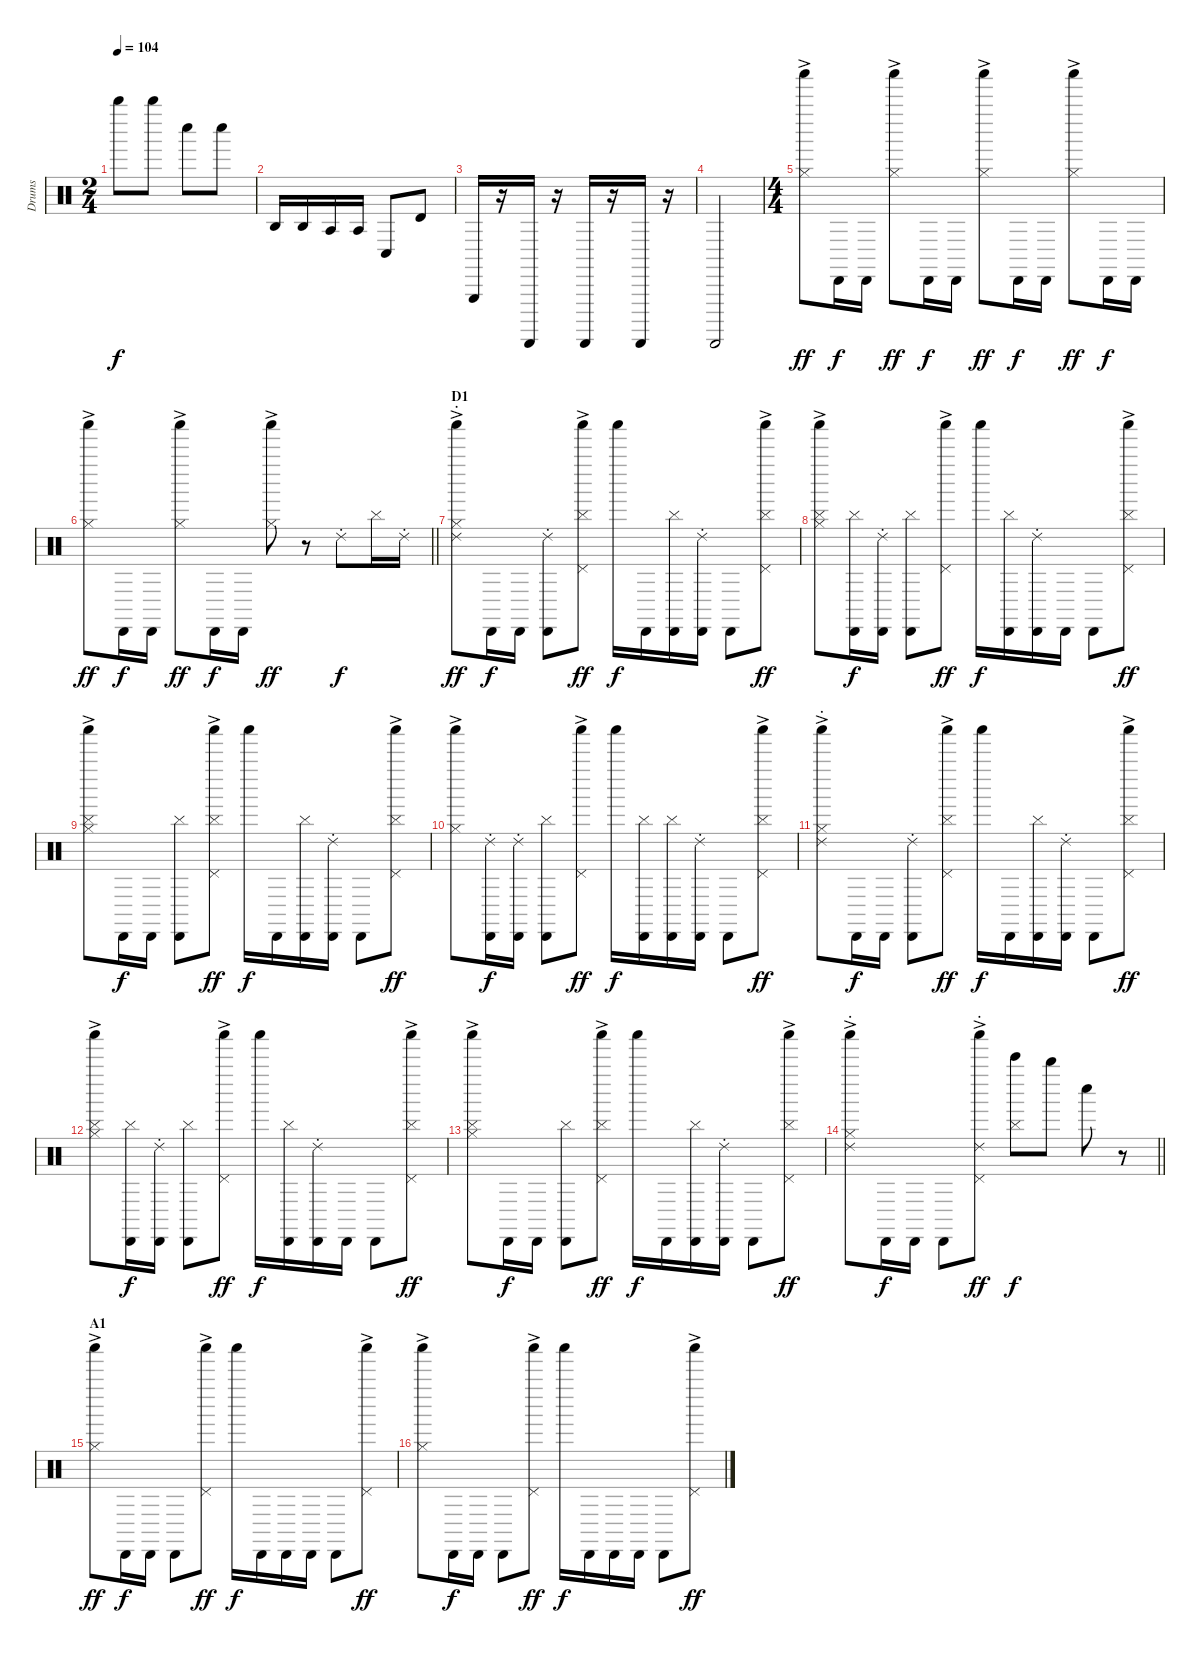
\track ("Drums" "Drums") {instrument percussion}
\staff {score}
\articulation defaults
\ts (2 4)
\tempo 104
\clef neutral
\ks c "Whistle high (hit)".8{dy f} "Whistle high (hit)".8 "Whistle low (hit)".8 "Whistle low (hit)".8
|
"Agogo high (hit)".16 "Agogo high (hit)".16 "Agogo tow (hit)".16 "Agogo tow (hit)".16 "Conga low (hit)".8 "Timbale high (hit)".8 |
"Triangle (hit)".16 r.16 "Guiro (scrap-return)".16 r.16 "Guiro (scrap-return)".16 r.16 "Guiro (scrap-return)".16 r.16 |
"Guiro (scrap-return)".2 |
\ts (4 4)
("Shaker (hit)" "Hi-Hat (closed)"{ac}).8{dy ff} "Cabasa (hit)".16{dy f} "Cabasa (hit)".16 ("Shaker (hit)" "Hi-Hat (closed)"{ac}).8{dy ff} "Cabasa (hit)".16{dy f} "Cabasa (hit)".16 ("Shaker (hit)" "Hi-Hat (closed)"{ac}).8{dy ff} "Cabasa (hit)".16{dy f} "Cabasa (hit)".16 ("Shaker (hit)" "Hi-Hat (closed)"{ac}).8{dy ff} "Cabasa (hit)".16{dy f} "Cabasa (hit)".16 |
\barLineRight lightlight
("Shaker (hit)" "Hi-Hat (closed)"{ac}).8{dy ff} "Cabasa (hit)".16{dy f} "Cabasa (hit)".16 ("Shaker (hit)" "Hi-Hat (closed)"{ac}).8{dy ff} "Cabasa (hit)".16{dy f} "Cabasa (hit)".16 ("Shaker (hit)" "Hi-Hat (closed)"{ac}).8{dy ff} r.8 "Ride (choke) 2".8{dy f} "Cymbal (hit)".16 "Ride (choke) 2".16 |
\section ("" "D1")
("Shaker (hit)" "Hi-Hat (closed)"{ac} "Ride (choke) 2").8{dy ff} "Cabasa (hit)".16{dy f} "Cabasa (hit)".16 ("Cabasa (hit)" "Ride (choke) 2").8 ("Shaker (hit)" "Pedal Hi-Hat (hit)"{ac} "Cymbal (hit)").8{dy ff} "Shaker (hit)".16{dy f} "Cabasa (hit)".16 ("Cabasa (hit)" "Cymbal (hit)").16 ("Cabasa (hit)" "Ride (choke) 2").16 "Cabasa (hit)".8 ("Shaker (hit)" "Pedal Hi-Hat (hit)"{ac} "Cymbal (hit)").8{dy ff} |
("Shaker (hit)" "Hi-Hat (closed)"{ac} "Cymbal (hit)").8 ("Cabasa (hit)" "Cymbal (hit)").16{dy f} ("Cabasa (hit)" "Ride (choke) 2").16 ("Cabasa (hit)" "Cymbal (hit)").8 ("Shaker (hit)" "Pedal Hi-Hat (hit)"{ac}).8{dy ff} "Shaker (hit)".16{dy f} ("Cabasa (hit)" "Cymbal (hit)").16 ("Cabasa (hit)" "Ride (choke) 2").16 "Cabasa (hit)".16 "Cabasa (hit)".8 ("Shaker (hit)" "Pedal Hi-Hat (hit)"{ac} "Cymbal (hit)").8{dy ff} |
("Shaker (hit)" "Hi-Hat (closed)"{ac} "Cymbal (hit)").8 "Cabasa (hit)".16{dy f} "Cabasa (hit)".16 ("Cabasa (hit)" "Cymbal (hit)").8 ("Shaker (hit)" "Pedal Hi-Hat (hit)"{ac} "Cymbal (hit)").8{dy ff} "Shaker (hit)".16{dy f} "Cabasa (hit)".16 ("Cabasa (hit)" "Cymbal (hit)").16 ("Cabasa (hit)" "Ride (choke) 2").16 "Cabasa (hit)".8 ("Shaker (hit)" "Pedal Hi-Hat (hit)"{ac} "Cymbal (hit)").8{dy ff} |
("Shaker (hit)" "Hi-Hat (closed)"{ac}).8 ("Cabasa (hit)" "Ride (choke) 2").16{dy f} ("Cabasa (hit)" "Ride (choke) 2").16 ("Cabasa (hit)" "Cymbal (hit)").8 ("Shaker (hit)" "Pedal Hi-Hat (hit)"{ac}).8{dy ff} "Shaker (hit)".16{dy f} ("Cabasa (hit)" "Cymbal (hit)").16 ("Cabasa (hit)" "Cymbal (hit)").16 ("Cabasa (hit)" "Ride (choke) 2").16 "Cabasa (hit)".8 ("Shaker (hit)" "Pedal Hi-Hat (hit)"{ac} "Cymbal (hit)").8{dy ff} |
("Shaker (hit)" "Hi-Hat (closed)"{ac} "Ride (choke) 2").8 "Cabasa (hit)".16{dy f} "Cabasa (hit)".16 ("Cabasa (hit)" "Ride (choke) 2").8 ("Shaker (hit)" "Pedal Hi-Hat (hit)"{ac} "Cymbal (hit)").8{dy ff} "Shaker (hit)".16{dy f} "Cabasa (hit)".16 ("Cabasa (hit)" "Cymbal (hit)").16 ("Cabasa (hit)" "Ride (choke) 2").16 "Cabasa (hit)".8 ("Shaker (hit)" "Pedal Hi-Hat (hit)"{ac} "Cymbal (hit)").8{dy ff} |
("Shaker (hit)" "Hi-Hat (closed)"{ac} "Cymbal (hit)").8 ("Cabasa (hit)" "Cymbal (hit)").16{dy f} ("Cabasa (hit)" "Ride (choke) 2").16 ("Cabasa (hit)" "Cymbal (hit)").8 ("Shaker (hit)" "Pedal Hi-Hat (hit)"{ac}).8{dy ff} "Shaker (hit)".16{dy f} ("Cabasa (hit)" "Cymbal (hit)").16 ("Cabasa (hit)" "Ride (choke) 2").16 "Cabasa (hit)".16 "Cabasa (hit)".8 ("Shaker (hit)" "Pedal Hi-Hat (hit)"{ac} "Cymbal (hit)").8{dy ff} |
("Shaker (hit)" "Hi-Hat (closed)"{ac} "Cymbal (hit)").8 "Cabasa (hit)".16{dy f} "Cabasa (hit)".16 ("Cabasa (hit)" "Cymbal (hit)").8 ("Shaker (hit)" "Pedal Hi-Hat (hit)"{ac} "Cymbal (hit)").8{dy ff} "Shaker (hit)".16{dy f} "Cabasa (hit)".16 ("Cabasa (hit)" "Cymbal (hit)").16 ("Cabasa (hit)" "Ride (choke) 2").16 "Cabasa (hit)".8 ("Shaker (hit)" "Pedal Hi-Hat (hit)"{ac} "Cymbal (hit)").8{dy ff} |
\barLineRight lightlight
("Shaker (hit)" "Hi-Hat (closed)"{ac} "Ride (choke) 2").8 "Cabasa (hit)".16{dy f} "Cabasa (hit)".16 "Cabasa (hit)".8 ("Shaker (hit)" "Pedal Hi-Hat (hit)"{ac} "Ride (choke) 2").8{dy ff} ("Bell Tree (hit)" "Cymbal (hit)").8{dy f} "Whistle high (hit)".8 "Whistle low (hit)".8 r.8 |
\section ("" "A1")
("Shaker (hit)" "Hi-Hat (closed)"{ac}).8{dy ff} "Cabasa (hit)".16{dy f} "Cabasa (hit)".16 "Cabasa (hit)".8 ("Shaker (hit)" "Pedal Hi-Hat (hit)"{ac}).8{dy ff} "Shaker (hit)".16{dy f} "Cabasa (hit)".16 "Cabasa (hit)".16 "Cabasa (hit)".16 "Cabasa (hit)".8 ("Shaker (hit)" "Pedal Hi-Hat (hit)"{ac}).8{dy ff} |
("Shaker (hit)" "Hi-Hat (closed)"{ac}).8 "Cabasa (hit)".16{dy f} "Cabasa (hit)".16 "Cabasa (hit)".8 ("Shaker (hit)" "Pedal Hi-Hat (hit)"{ac}).8{dy ff} "Shaker (hit)".16{dy f} "Cabasa (hit)".16 "Cabasa (hit)".16 "Cabasa (hit)".16 "Cabasa (hit)".8 ("Shaker (hit)" "Pedal Hi-Hat (hit)"{ac}).8{dy ff}
